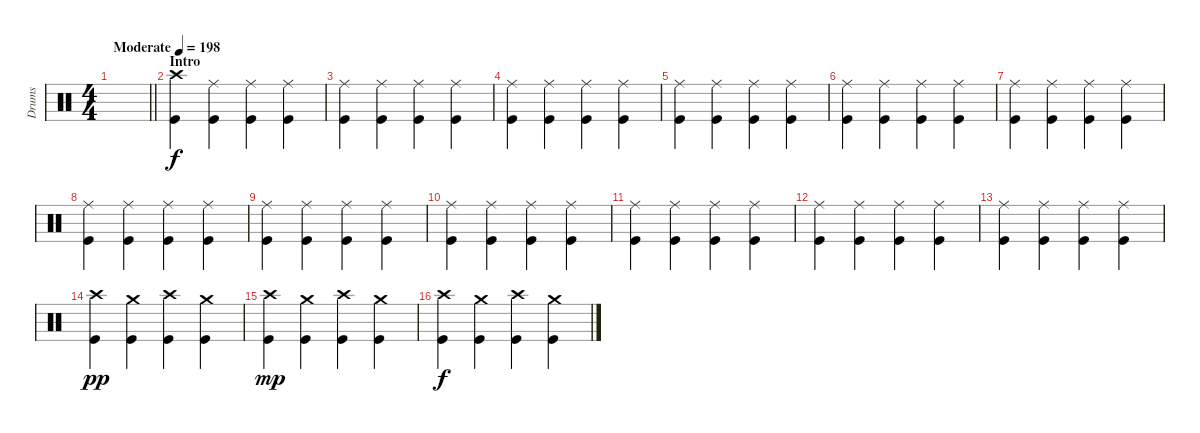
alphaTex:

\track ("Drums" "Drums") {instrument percussion}
\staff {score}
\articulation defaults
\ts (4 4)
\tempo (198 "Moderate")
\clef neutral
\barLineRight lightlight
\ks c
|
\section ("" "Intro")
("Crash high (hit)" "Kick (hit)").4 ("Ride (middle)" "Kick (hit)").4 ("Ride (middle)" "Kick (hit)").4 ("Ride (middle)" "Kick (hit)").4 |
("Ride (middle)" "Kick (hit)").4 ("Ride (middle)" "Kick (hit)").4 ("Ride (middle)" "Kick (hit)").4 ("Ride (middle)" "Kick (hit)").4 |
("Ride (middle)" "Kick (hit)").4 ("Ride (middle)" "Kick (hit)").4 ("Ride (middle)" "Kick (hit)").4 ("Ride (middle)" "Kick (hit)").4 |
("Ride (middle)" "Kick (hit)").4 ("Ride (middle)" "Kick (hit)").4 ("Ride (middle)" "Kick (hit)").4 ("Ride (middle)" "Kick (hit)").4 |
("Ride (middle)" "Kick (hit)").4 ("Ride (middle)" "Kick (hit)").4 ("Ride (middle)" "Kick (hit)").4 ("Ride (middle)" "Kick (hit)").4 |
("Ride (middle)" "Kick (hit)").4 ("Ride (middle)" "Kick (hit)").4 ("Ride (middle)" "Kick (hit)").4 ("Ride (middle)" "Kick (hit)").4 |
("Ride (middle)" "Kick (hit)").4 ("Ride (middle)" "Kick (hit)").4 ("Ride (middle)" "Kick (hit)").4 ("Ride (middle)" "Kick (hit)").4 |
("Ride (middle)" "Kick (hit)").4 ("Ride (middle)" "Kick (hit)").4 ("Ride (middle)" "Kick (hit)").4 ("Ride (middle)" "Kick (hit)").4 |
("Ride (middle)" "Kick (hit)").4 ("Ride (middle)" "Kick (hit)").4 ("Ride (middle)" "Kick (hit)").4 ("Ride (middle)" "Kick (hit)").4 |
("Ride (middle)" "Kick (hit)").4 ("Ride (middle)" "Kick (hit)").4 ("Ride (middle)" "Kick (hit)").4 ("Ride (middle)" "Kick (hit)").4 |
("Ride (middle)" "Kick (hit)").4 ("Ride (middle)" "Kick (hit)").4 ("Ride (middle)" "Kick (hit)").4 ("Ride (middle)" "Kick (hit)").4 |
("Ride (middle)" "Kick (hit)").4 ("Ride (middle)" "Kick (hit)").4 ("Ride (middle)" "Kick (hit)").4 ("Ride (middle)" "Kick (hit)").4 |
("Crash high (hit)" "Kick (hit)").4{dy pp} ("Crash medium (hit)" "Kick (hit)").4 ("Crash high (hit)" "Kick (hit)").4 ("Crash medium (hit)" "Kick (hit)").4 |
("Crash high (hit)" "Kick (hit)").4{dy mp} ("Crash medium (hit)" "Kick (hit)").4 ("Crash high (hit)" "Kick (hit)").4 ("Crash medium (hit)" "Kick (hit)").4 |
("Crash high (hit)" "Kick (hit)").4{dy f} ("Crash medium (hit)" "Kick (hit)").4 ("Crash high (hit)" "Kick (hit)").4 ("Crash medium (hit)" "Kick (hit)").4
